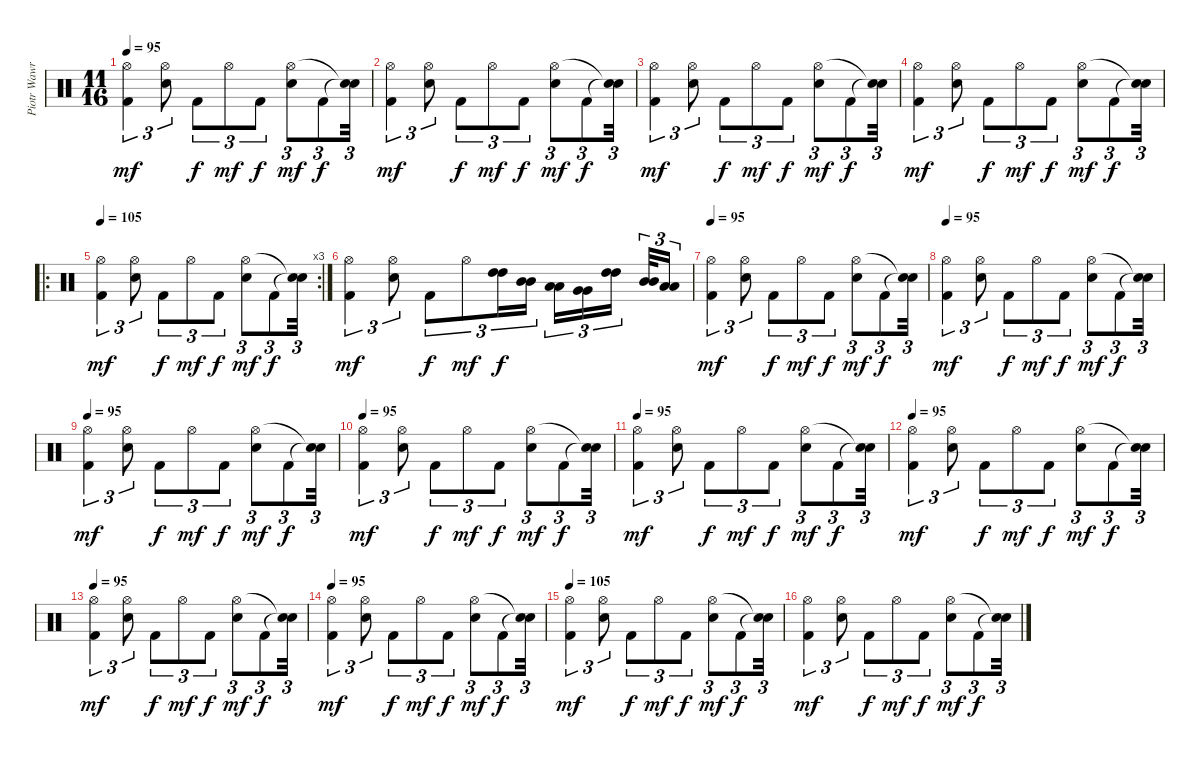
\track ("Piotr Wawrzeniunk (drums)" "Piotr Wawr") {instrument percussion}
\staff {score}
\articulation defaults
\ts (11 16)
\tempo 95
\clef neutral
\ks c
("Kick (hit) 2" "Hi-Hat (open)").4{tu (3 2) dy mf} ("Electric Snare (hit)" "Hi-Hat (open)").8{tu (3 2)} "Kick (hit) 2".8{tu (3 2) dy f} "Hi-Hat (open)".8{tu (3 2) dy mf} "Kick (hit) 2".8{tu (3 2) dy f} ("Electric Snare (hit)" "Hi-Hat (open)").8{tu (3 2) dy mf} "Kick (hit) 2".8{tu (3 2) dy f} ("Snare (hit)"{t} "Snare (hit)"{t}).32{tu (3 2)} |
("Kick (hit) 2" "Hi-Hat (open)").4{tu (3 2) dy mf} ("Electric Snare (hit)" "Hi-Hat (open)").8{tu (3 2)} "Kick (hit) 2".8{tu (3 2) dy f} "Hi-Hat (open)".8{tu (3 2) dy mf} "Kick (hit) 2".8{tu (3 2) dy f} ("Electric Snare (hit)" "Hi-Hat (open)").8{tu (3 2) dy mf} "Kick (hit) 2".8{tu (3 2) dy f} ("Snare (hit)"{t} "Snare (hit)"{t}).32{tu (3 2)} |
("Kick (hit) 2" "Hi-Hat (open)").4{tu (3 2) dy mf} ("Electric Snare (hit)" "Hi-Hat (open)").8{tu (3 2)} "Kick (hit) 2".8{tu (3 2) dy f} "Hi-Hat (open)".8{tu (3 2) dy mf} "Kick (hit) 2".8{tu (3 2) dy f} ("Electric Snare (hit)" "Hi-Hat (open)").8{tu (3 2) dy mf} "Kick (hit) 2".8{tu (3 2) dy f} ("Snare (hit)"{t} "Snare (hit)"{t}).32{tu (3 2)} |
("Kick (hit) 2" "Hi-Hat (open)").4{tu (3 2) dy mf} ("Electric Snare (hit)" "Hi-Hat (open)").8{tu (3 2)} "Kick (hit) 2".8{tu (3 2) dy f} "Hi-Hat (open)".8{tu (3 2) dy mf} "Kick (hit) 2".8{tu (3 2) dy f} ("Electric Snare (hit)" "Hi-Hat (open)").8{tu (3 2) dy mf} "Kick (hit) 2".8{tu (3 2) dy f} ("Snare (hit)"{t} "Snare (hit)"{t}).32{tu (3 2)} |
\ro
\rc 3
\tempo 105
("Kick (hit) 2" "Hi-Hat (open)").4{tu (3 2) dy mf} ("Electric Snare (hit)" "Hi-Hat (open)").8{tu (3 2)} "Kick (hit) 2".8{tu (3 2) dy f} "Hi-Hat (open)".8{tu (3 2) dy mf} "Kick (hit) 2".8{tu (3 2) dy f} ("Electric Snare (hit)" "Hi-Hat (open)").8{tu (3 2) dy mf} "Kick (hit) 2".8{tu (3 2) dy f} ("Snare (hit)"{t} "Snare (hit)"{t}).32{tu (3 2)} |
("Kick (hit) 2" "Hi-Hat (open)").4{tu (3 2) dy mf} ("Electric Snare (hit)" "Hi-Hat (open)").8{tu (3 2)} "Kick (hit) 2".8{tu (3 2) dy f} "Hi-Hat (open)".8{tu (3 2) dy mf} ("High Tom (hit)" "High Tom (hit)").16{tu (3 2) dy f} ("Mid Tom (hit)" "Mid Tom (hit)").16{tu (3 2)} ("Low Tom (hit)" "Low Tom (hit)").16{tu (3 2)} ("Very Low Tom (hit)" "Very Low Tom (hit)").16{tu (3 2)} ("High Tom (hit)" "High Tom (hit)").16{tu (3 2)} ("Mid Tom (hit)" "Mid Tom (hit)").32{tu (3 2)} ("Low Tom (hit)" "Low Tom (hit)").16{tu (3 2)} |
\tempo 95
("Kick (hit) 2" "Hi-Hat (open)").4{tu (3 2) dy mf} ("Electric Snare (hit)" "Hi-Hat (open)").8{tu (3 2)} "Kick (hit) 2".8{tu (3 2) dy f} "Hi-Hat (open)".8{tu (3 2) dy mf} "Kick (hit) 2".8{tu (3 2) dy f} ("Electric Snare (hit)" "Hi-Hat (open)").8{tu (3 2) dy mf} "Kick (hit) 2".8{tu (3 2) dy f} ("Snare (hit)"{t} "Snare (hit)"{t}).32{tu (3 2)} |
\tempo 95
("Kick (hit) 2" "Hi-Hat (open)").4{tu (3 2) dy mf} ("Electric Snare (hit)" "Hi-Hat (open)").8{tu (3 2)} "Kick (hit) 2".8{tu (3 2) dy f} "Hi-Hat (open)".8{tu (3 2) dy mf} "Kick (hit) 2".8{tu (3 2) dy f} ("Electric Snare (hit)" "Hi-Hat (open)").8{tu (3 2) dy mf} "Kick (hit) 2".8{tu (3 2) dy f} ("Snare (hit)"{t} "Snare (hit)"{t}).32{tu (3 2)} |
\tempo 95
("Kick (hit) 2" "Hi-Hat (open)").4{tu (3 2) dy mf} ("Electric Snare (hit)" "Hi-Hat (open)").8{tu (3 2)} "Kick (hit) 2".8{tu (3 2) dy f} "Hi-Hat (open)".8{tu (3 2) dy mf} "Kick (hit) 2".8{tu (3 2) dy f} ("Electric Snare (hit)" "Hi-Hat (open)").8{tu (3 2) dy mf} "Kick (hit) 2".8{tu (3 2) dy f} ("Snare (hit)"{t} "Snare (hit)"{t}).32{tu (3 2)} |
\tempo 95
("Kick (hit) 2" "Hi-Hat (open)").4{tu (3 2) dy mf} ("Electric Snare (hit)" "Hi-Hat (open)").8{tu (3 2)} "Kick (hit) 2".8{tu (3 2) dy f} "Hi-Hat (open)".8{tu (3 2) dy mf} "Kick (hit) 2".8{tu (3 2) dy f} ("Electric Snare (hit)" "Hi-Hat (open)").8{tu (3 2) dy mf} "Kick (hit) 2".8{tu (3 2) dy f} ("Snare (hit)"{t} "Snare (hit)"{t}).32{tu (3 2)} |
\tempo 95
("Kick (hit) 2" "Hi-Hat (open)").4{tu (3 2) dy mf} ("Electric Snare (hit)" "Hi-Hat (open)").8{tu (3 2)} "Kick (hit) 2".8{tu (3 2) dy f} "Hi-Hat (open)".8{tu (3 2) dy mf} "Kick (hit) 2".8{tu (3 2) dy f} ("Electric Snare (hit)" "Hi-Hat (open)").8{tu (3 2) dy mf} "Kick (hit) 2".8{tu (3 2) dy f} ("Snare (hit)"{t} "Snare (hit)"{t}).32{tu (3 2)} |
\tempo 95
("Kick (hit) 2" "Hi-Hat (open)").4{tu (3 2) dy mf} ("Electric Snare (hit)" "Hi-Hat (open)").8{tu (3 2)} "Kick (hit) 2".8{tu (3 2) dy f} "Hi-Hat (open)".8{tu (3 2) dy mf} "Kick (hit) 2".8{tu (3 2) dy f} ("Electric Snare (hit)" "Hi-Hat (open)").8{tu (3 2) dy mf} "Kick (hit) 2".8{tu (3 2) dy f} ("Snare (hit)"{t} "Snare (hit)"{t}).32{tu (3 2)} |
\tempo 95
("Kick (hit) 2" "Hi-Hat (open)").4{tu (3 2) dy mf} ("Electric Snare (hit)" "Hi-Hat (open)").8{tu (3 2)} "Kick (hit) 2".8{tu (3 2) dy f} "Hi-Hat (open)".8{tu (3 2) dy mf} "Kick (hit) 2".8{tu (3 2) dy f} ("Electric Snare (hit)" "Hi-Hat (open)").8{tu (3 2) dy mf} "Kick (hit) 2".8{tu (3 2) dy f} ("Snare (hit)"{t} "Snare (hit)"{t}).32{tu (3 2)} |
\tempo 95
("Kick (hit) 2" "Hi-Hat (open)").4{tu (3 2) dy mf} ("Electric Snare (hit)" "Hi-Hat (open)").8{tu (3 2)} "Kick (hit) 2".8{tu (3 2) dy f} "Hi-Hat (open)".8{tu (3 2) dy mf} "Kick (hit) 2".8{tu (3 2) dy f} ("Electric Snare (hit)" "Hi-Hat (open)").8{tu (3 2) dy mf} "Kick (hit) 2".8{tu (3 2) dy f} ("Snare (hit)"{t} "Snare (hit)"{t}).32{tu (3 2)} |
\tempo 105
("Kick (hit) 2" "Hi-Hat (open)").4{tu (3 2) dy mf} ("Electric Snare (hit)" "Hi-Hat (open)").8{tu (3 2)} "Kick (hit) 2".8{tu (3 2) dy f} "Hi-Hat (open)".8{tu (3 2) dy mf} "Kick (hit) 2".8{tu (3 2) dy f} ("Electric Snare (hit)" "Hi-Hat (open)").8{tu (3 2) dy mf} "Kick (hit) 2".8{tu (3 2) dy f} ("Snare (hit)"{t} "Snare (hit)"{t}).32{tu (3 2)} |
("Kick (hit) 2" "Hi-Hat (open)").4{tu (3 2) dy mf} ("Electric Snare (hit)" "Hi-Hat (open)").8{tu (3 2)} "Kick (hit) 2".8{tu (3 2) dy f} "Hi-Hat (open)".8{tu (3 2) dy mf} "Kick (hit) 2".8{tu (3 2) dy f} ("Electric Snare (hit)" "Hi-Hat (open)").8{tu (3 2) dy mf} "Kick (hit) 2".8{tu (3 2) dy f} ("Snare (hit)"{t} "Snare (hit)"{t}).32{tu (3 2)}
